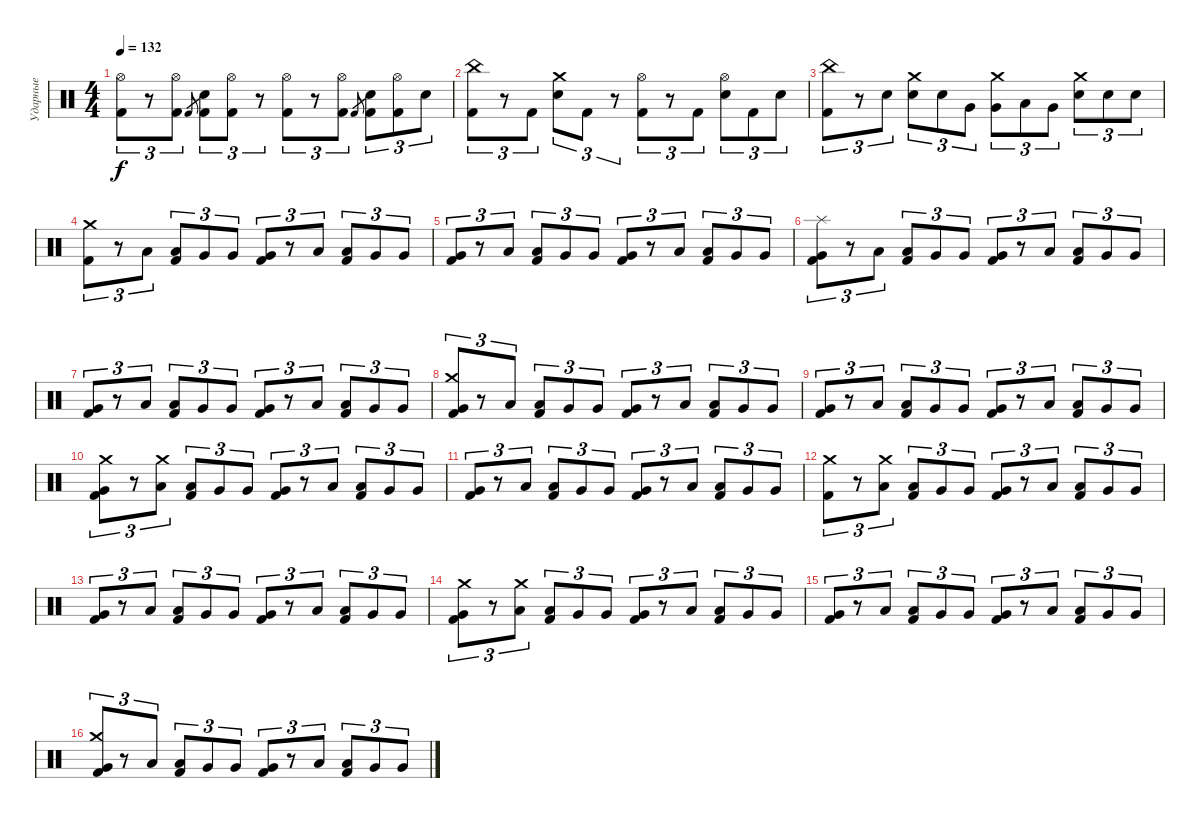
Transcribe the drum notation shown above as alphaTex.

\track ("Ударные" "Ударные") {instrument percussion}
\staff {score}
\articulation defaults
\ts (4 4)
\tempo 132
\clef neutral
\ks c
("Hi-Hat (open)" "Kick (hit) 2").8{tu (3 2) dy f} r.8{tu (3 2)} ("Hi-Hat (open)" "Kick (hit) 2").8{tu (3 2)} "Kick (hit) 2".8{gr} ("Snare (hit) 2" "Kick (hit) 2").8{tu (3 2)} ("Hi-Hat (open)" "Kick (hit) 2").8{tu (3 2)} r.8{tu (3 2)} ("Hi-Hat (open)" "Kick (hit) 2").8{tu (3 2)} r.8{tu (3 2)} ("Hi-Hat (open)" "Kick (hit) 2").8{tu (3 2)} "Kick (hit) 2".8{gr} ("Snare (hit) 2" "Kick (hit) 2").8{tu (3 2)} ("Hi-Hat (open)" "Kick (hit) 2").8{tu (3 2)} "Snare (hit) 2".8{tu (3 2)} |
("China (hit)" "Kick (hit) 2").8{tu (3 2)} r.8{tu (3 2)} "Kick (hit) 2".8{tu (3 2)} ("Crash medium (hit)" "Snare (hit) 2").8{tu (3 2)} "Kick (hit) 2".8{tu (3 2)} r.8{tu (3 2)} ("Hi-Hat (open)" "Kick (hit) 2").8{tu (3 2)} r.8{tu (3 2)} "Kick (hit) 2".8{tu (3 2)} ("Hi-Hat (open)" "Snare (hit) 2").8{tu (3 2)} "Kick (hit) 2".8{tu (3 2)} "Snare (hit) 2".8{tu (3 2)} |
("China (hit)" "Kick (hit) 2").8{tu (3 2)} r.8{tu (3 2)} "Snare (hit) 2".8{tu (3 2)} ("Crash medium (hit)" "Snare (hit) 2").8{tu (3 2)} "Snare (hit) 2".8{tu (3 2)} "Very Low Tom (hit)".8{tu (3 2)} ("Crash medium (hit)" "Very Low Tom (hit)").8{tu (3 2)} "Low Tom (hit)".8{tu (3 2)} "Very Low Tom (hit)".8{tu (3 2)} ("Crash medium (hit)" "Snare (hit) 2").8{tu (3 2)} "Snare (hit) 2".8{tu (3 2)} "Snare (hit) 2".8{tu (3 2)} |
("Crash medium (hit)" "Kick (hit) 2").8{tu (3 2)} r.8{tu (3 2)} "Low Tom (hit)".8{tu (3 2)} ("Low Tom (hit)" "Kick (hit) 2").8{tu (3 2)} "Very Low Tom (hit)".8{tu (3 2)} "Very Low Tom (hit)".8{tu (3 2)} ("Very Low Tom (hit)" "Kick (hit) 2").8{tu (3 2)} r.8{tu (3 2)} "Low Tom (hit)".8{tu (3 2)} ("Low Tom (hit)" "Kick (hit) 2").8{tu (3 2)} "Very Low Tom (hit)".8{tu (3 2)} "Very Low Tom (hit)".8{tu (3 2)} |
("Very Low Tom (hit)" "Kick (hit) 2").8{tu (3 2)} r.8{tu (3 2)} "Low Tom (hit)".8{tu (3 2)} ("Low Tom (hit)" "Kick (hit) 2").8{tu (3 2)} "Very Low Tom (hit)".8{tu (3 2)} "Very Low Tom (hit)".8{tu (3 2)} ("Very Low Tom (hit)" "Kick (hit) 2").8{tu (3 2)} r.8{tu (3 2)} "Low Tom (hit)".8{tu (3 2)} ("Low Tom (hit)" "Kick (hit) 2").8{tu (3 2)} "Very Low Tom (hit)".8{tu (3 2)} "Very Low Tom (hit)".8{tu (3 2)} |
("Splash (hit)" "Very Low Tom (hit)" "Kick (hit) 2").8{tu (3 2)} r.8{tu (3 2)} "Low Tom (hit)".8{tu (3 2)} ("Low Tom (hit)" "Kick (hit) 2").8{tu (3 2)} "Very Low Tom (hit)".8{tu (3 2)} "Very Low Tom (hit)".8{tu (3 2)} ("Very Low Tom (hit)" "Kick (hit) 2").8{tu (3 2)} r.8{tu (3 2)} "Low Tom (hit)".8{tu (3 2)} ("Low Tom (hit)" "Kick (hit) 2").8{tu (3 2)} "Very Low Tom (hit)".8{tu (3 2)} "Very Low Tom (hit)".8{tu (3 2)} |
("Very Low Tom (hit)" "Kick (hit) 2").8{tu (3 2)} r.8{tu (3 2)} "Low Tom (hit)".8{tu (3 2)} ("Low Tom (hit)" "Kick (hit) 2").8{tu (3 2)} "Very Low Tom (hit)".8{tu (3 2)} "Very Low Tom (hit)".8{tu (3 2)} ("Very Low Tom (hit)" "Kick (hit) 2").8{tu (3 2)} r.8{tu (3 2)} "Low Tom (hit)".8{tu (3 2)} ("Low Tom (hit)" "Kick (hit) 2").8{tu (3 2)} "Very Low Tom (hit)".8{tu (3 2)} "Very Low Tom (hit)".8{tu (3 2)} |
("Crash medium (hit)" "Very Low Tom (hit)" "Kick (hit) 2").8{tu (3 2)} r.8{tu (3 2)} "Low Tom (hit)".8{tu (3 2)} ("Low Tom (hit)" "Kick (hit) 2").8{tu (3 2)} "Very Low Tom (hit)".8{tu (3 2)} "Very Low Tom (hit)".8{tu (3 2)} ("Very Low Tom (hit)" "Kick (hit) 2").8{tu (3 2)} r.8{tu (3 2)} "Low Tom (hit)".8{tu (3 2)} ("Low Tom (hit)" "Kick (hit) 2").8{tu (3 2)} "Very Low Tom (hit)".8{tu (3 2)} "Very Low Tom (hit)".8{tu (3 2)} |
("Very Low Tom (hit)" "Kick (hit) 2").8{tu (3 2)} r.8{tu (3 2)} "Low Tom (hit)".8{tu (3 2)} ("Low Tom (hit)" "Kick (hit) 2").8{tu (3 2)} "Very Low Tom (hit)".8{tu (3 2)} "Very Low Tom (hit)".8{tu (3 2)} ("Very Low Tom (hit)" "Kick (hit) 2").8{tu (3 2)} r.8{tu (3 2)} "Low Tom (hit)".8{tu (3 2)} ("Low Tom (hit)" "Kick (hit) 2").8{tu (3 2)} "Very Low Tom (hit)".8{tu (3 2)} "Very Low Tom (hit)".8{tu (3 2)} |
("Crash medium (hit)" "Very Low Tom (hit)" "Kick (hit) 2").8{tu (3 2)} r.8{tu (3 2)} ("Crash medium (hit)" "Low Tom (hit)").8{tu (3 2)} ("Low Tom (hit)" "Kick (hit) 2").8{tu (3 2)} "Very Low Tom (hit)".8{tu (3 2)} "Very Low Tom (hit)".8{tu (3 2)} ("Very Low Tom (hit)" "Kick (hit) 2").8{tu (3 2)} r.8{tu (3 2)} "Low Tom (hit)".8{tu (3 2)} ("Low Tom (hit)" "Kick (hit) 2").8{tu (3 2)} "Very Low Tom (hit)".8{tu (3 2)} "Very Low Tom (hit)".8{tu (3 2)} |
("Very Low Tom (hit)" "Kick (hit) 2").8{tu (3 2)} r.8{tu (3 2)} "Low Tom (hit)".8{tu (3 2)} ("Low Tom (hit)" "Kick (hit) 2").8{tu (3 2)} "Very Low Tom (hit)".8{tu (3 2)} "Very Low Tom (hit)".8{tu (3 2)} ("Very Low Tom (hit)" "Kick (hit) 2").8{tu (3 2)} r.8{tu (3 2)} "Low Tom (hit)".8{tu (3 2)} ("Low Tom (hit)" "Kick (hit) 2").8{tu (3 2)} "Very Low Tom (hit)".8{tu (3 2)} "Very Low Tom (hit)".8{tu (3 2)} |
("Crash medium (hit)" "Kick (hit) 2").8{tu (3 2)} r.8{tu (3 2)} ("Crash medium (hit)" "Low Tom (hit)").8{tu (3 2)} ("Low Tom (hit)" "Kick (hit) 2").8{tu (3 2)} "Very Low Tom (hit)".8{tu (3 2)} "Very Low Tom (hit)".8{tu (3 2)} ("Very Low Tom (hit)" "Kick (hit) 2").8{tu (3 2)} r.8{tu (3 2)} "Low Tom (hit)".8{tu (3 2)} ("Low Tom (hit)" "Kick (hit) 2").8{tu (3 2)} "Very Low Tom (hit)".8{tu (3 2)} "Very Low Tom (hit)".8{tu (3 2)} |
("Very Low Tom (hit)" "Kick (hit) 2").8{tu (3 2)} r.8{tu (3 2)} "Low Tom (hit)".8{tu (3 2)} ("Low Tom (hit)" "Kick (hit) 2").8{tu (3 2)} "Very Low Tom (hit)".8{tu (3 2)} "Very Low Tom (hit)".8{tu (3 2)} ("Very Low Tom (hit)" "Kick (hit) 2").8{tu (3 2)} r.8{tu (3 2)} "Low Tom (hit)".8{tu (3 2)} ("Low Tom (hit)" "Kick (hit) 2").8{tu (3 2)} "Very Low Tom (hit)".8{tu (3 2)} "Very Low Tom (hit)".8{tu (3 2)} |
("Crash medium (hit)" "Very Low Tom (hit)" "Kick (hit) 2").8{tu (3 2)} r.8{tu (3 2)} ("Crash medium (hit)" "Low Tom (hit)").8{tu (3 2)} ("Low Tom (hit)" "Kick (hit) 2").8{tu (3 2)} "Very Low Tom (hit)".8{tu (3 2)} "Very Low Tom (hit)".8{tu (3 2)} ("Very Low Tom (hit)" "Kick (hit) 2").8{tu (3 2)} r.8{tu (3 2)} "Low Tom (hit)".8{tu (3 2)} ("Low Tom (hit)" "Kick (hit) 2").8{tu (3 2)} "Very Low Tom (hit)".8{tu (3 2)} "Very Low Tom (hit)".8{tu (3 2)} |
("Very Low Tom (hit)" "Kick (hit) 2").8{tu (3 2)} r.8{tu (3 2)} "Low Tom (hit)".8{tu (3 2)} ("Low Tom (hit)" "Kick (hit) 2").8{tu (3 2)} "Very Low Tom (hit)".8{tu (3 2)} "Very Low Tom (hit)".8{tu (3 2)} ("Very Low Tom (hit)" "Kick (hit) 2").8{tu (3 2)} r.8{tu (3 2)} "Low Tom (hit)".8{tu (3 2)} ("Low Tom (hit)" "Kick (hit) 2").8{tu (3 2)} "Very Low Tom (hit)".8{tu (3 2)} "Very Low Tom (hit)".8{tu (3 2)} |
("Crash medium (hit)" "Very Low Tom (hit)" "Kick (hit) 2").8{tu (3 2)} r.8{tu (3 2)} "Low Tom (hit)".8{tu (3 2)} ("Low Tom (hit)" "Kick (hit) 2").8{tu (3 2)} "Very Low Tom (hit)".8{tu (3 2)} "Very Low Tom (hit)".8{tu (3 2)} ("Very Low Tom (hit)" "Kick (hit) 2").8{tu (3 2)} r.8{tu (3 2)} "Low Tom (hit)".8{tu (3 2)} ("Low Tom (hit)" "Kick (hit) 2").8{tu (3 2)} "Very Low Tom (hit)".8{tu (3 2)} "Very Low Tom (hit)".8{tu (3 2)}
